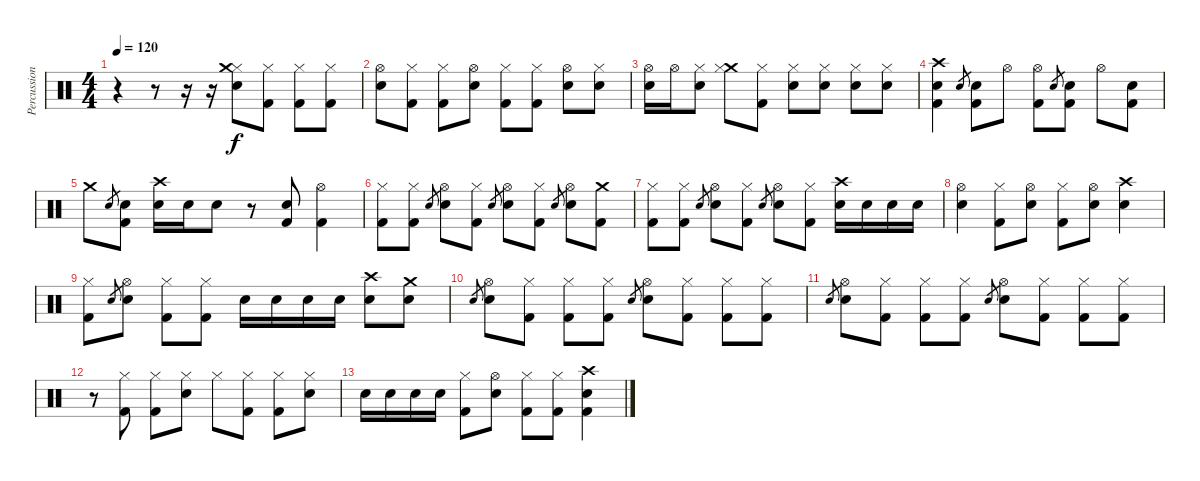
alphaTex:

\track ("Percussions" "Percussion") {instrument percussion}
\staff {score}
\articulation defaults
\ts (4 4)
\tempo 120
\clef neutral
\ks c
r.4{dy f} r.8 r.16 r.16 ("Electric Snare (hit)" "Hi-Hat (closed)" "Crash medium (hit)").8 ("Kick (hit) 2" "Hi-Hat (closed)").8 ("Kick (hit) 2" "Hi-Hat (closed)").8 ("Kick (hit) 2" "Hi-Hat (closed)").8 |
("Electric Snare (hit)" "Hi-Hat (open)").8 ("Kick (hit) 2" "Hi-Hat (closed)").8 ("Kick (hit) 2" "Hi-Hat (closed)").8 ("Electric Snare (hit)" "Hi-Hat (open)").8 ("Kick (hit) 2" "Hi-Hat (closed)").8 ("Kick (hit) 2" "Hi-Hat (closed)").8 ("Electric Snare (hit)" "Hi-Hat (open)").8 ("Electric Snare (hit)" "Hi-Hat (closed)").8 |
("Electric Snare (hit)" "Hi-Hat (open)").16 "Hi-Hat (open)".16 ("Electric Snare (hit)" "Hi-Hat (closed)").8 ("Crash medium (hit)" "Hi-Hat (closed)").8 ("Kick (hit) 2" "Hi-Hat (closed)").8 ("Electric Snare (hit)" "Hi-Hat (closed)").8 ("Electric Snare (hit)" "Hi-Hat (closed)").8 ("Electric Snare (hit)" "Hi-Hat (closed)").8 ("Electric Snare (hit)" "Hi-Hat (closed)").8 |
("Kick (hit) 2" "Crash high (hit)" "Electric Snare (hit)").4 "Electric Snare (hit)".8{gr} ("Kick (hit) 2" "Electric Snare (hit)").8 "Hi-Hat (open)".8 ("Kick (hit) 2" "Hi-Hat (open)").8 "Electric Snare (hit)".8{gr} ("Kick (hit) 2" "Electric Snare (hit)").8 "Hi-Hat (open)".8 ("Kick (hit) 2" "Electric Snare (hit)").8 |
"Crash medium (hit)".8 "Electric Snare (hit)".8{gr} ("Kick (hit) 2" "Electric Snare (hit)").8 ("Electric Snare (hit)" "Crash high (hit)").16 "Electric Snare (hit)".16 "Electric Snare (hit)".8 r.8 ("Electric Snare (hit)" "Kick (hit) 2").8 ("Hi-Hat (open)" "Kick (hit) 2").4 |
("Hi-Hat (closed)" "Kick (hit) 2").8 ("Hi-Hat (closed)" "Kick (hit) 2").8 "Electric Snare (hit)".8{gr} ("Hi-Hat (open)" "Electric Snare (hit)").8 ("Hi-Hat (closed)" "Kick (hit) 2").8 "Electric Snare (hit)".8{gr} ("Hi-Hat (open)" "Electric Snare (hit)").8 ("Hi-Hat (closed)" "Kick (hit) 2").8 "Electric Snare (hit)".8{gr} ("Hi-Hat (open)" "Electric Snare (hit)").8 ("Crash medium (hit)" "Kick (hit) 2").8 |
("Hi-Hat (closed)" "Kick (hit) 2").8 ("Hi-Hat (closed)" "Kick (hit) 2").8 "Electric Snare (hit)".8{gr} ("Hi-Hat (open)" "Electric Snare (hit)").8 ("Hi-Hat (closed)" "Kick (hit) 2").8 "Electric Snare (hit)".8{gr} ("Hi-Hat (open)" "Electric Snare (hit)").8 ("Hi-Hat (closed)" "Kick (hit) 2").8 ("Crash high (hit)" "Electric Snare (hit)").16 "Electric Snare (hit)".16 "Electric Snare (hit)".16 "Electric Snare (hit)".16 |
("Hi-Hat (open)" "Electric Snare (hit)").4 ("Hi-Hat (closed)" "Kick (hit) 2").8 ("Hi-Hat (open)" "Electric Snare (hit)").8 ("Hi-Hat (closed)" "Kick (hit) 2").8 ("Hi-Hat (open)" "Electric Snare (hit)").8 ("Crash high (hit)" "Electric Snare (hit)").4 |
("Hi-Hat (closed)" "Kick (hit) 2").8 "Electric Snare (hit)".8{gr} ("Hi-Hat (open)" "Electric Snare (hit)").8 ("Hi-Hat (closed)" "Kick (hit) 2").8 ("Hi-Hat (closed)" "Kick (hit) 2").8 "Electric Snare (hit)".16 "Electric Snare (hit)".16 "Electric Snare (hit)".16 "Electric Snare (hit)".16 ("Crash high (hit)" "Electric Snare (hit)").8 ("Crash medium (hit)" "Electric Snare (hit)").8 |
"Electric Snare (hit)".8{gr} ("Hi-Hat (open)" "Electric Snare (hit)").8 ("Hi-Hat (closed)" "Kick (hit) 2").8 ("Hi-Hat (closed)" "Kick (hit) 2").8 ("Hi-Hat (closed)" "Kick (hit) 2").8 "Electric Snare (hit)".8{gr} ("Hi-Hat (open)" "Electric Snare (hit)").8 ("Hi-Hat (closed)" "Kick (hit) 2").8 ("Hi-Hat (closed)" "Kick (hit) 2").8 ("Hi-Hat (closed)" "Kick (hit) 2").8 |
"Electric Snare (hit)".8{gr} ("Hi-Hat (open)" "Electric Snare (hit)").8 ("Hi-Hat (closed)" "Kick (hit) 2").8 ("Hi-Hat (closed)" "Kick (hit) 2").8 ("Hi-Hat (closed)" "Kick (hit) 2").8 "Electric Snare (hit)".8{gr} ("Hi-Hat (open)" "Electric Snare (hit)").8 ("Hi-Hat (closed)" "Kick (hit) 2").8 ("Hi-Hat (closed)" "Kick (hit) 2").8 ("Hi-Hat (closed)" "Kick (hit) 2").8 |
r.8 ("Kick (hit) 2" "Hi-Hat (closed)").8 ("Kick (hit) 2" "Hi-Hat (closed)").8 ("Electric Snare (hit)" "Hi-Hat (closed)").8 "Hi-Hat (closed)".8 ("Kick (hit) 2" "Hi-Hat (closed)").8 ("Kick (hit) 2" "Hi-Hat (closed)").8 ("Electric Snare (hit)" "Hi-Hat (closed)").8 |
"Electric Snare (hit)".16 "Electric Snare (hit)".16 "Electric Snare (hit)".16 "Electric Snare (hit)".16 ("Hi-Hat (closed)" "Kick (hit) 2").8 ("Hi-Hat (open)" "Electric Snare (hit)").8 ("Hi-Hat (closed)" "Kick (hit) 2").8 ("Hi-Hat (closed)" "Kick (hit) 2").8 ("Crash high (hit)" "Electric Snare (hit)" "Kick (hit) 2").4
